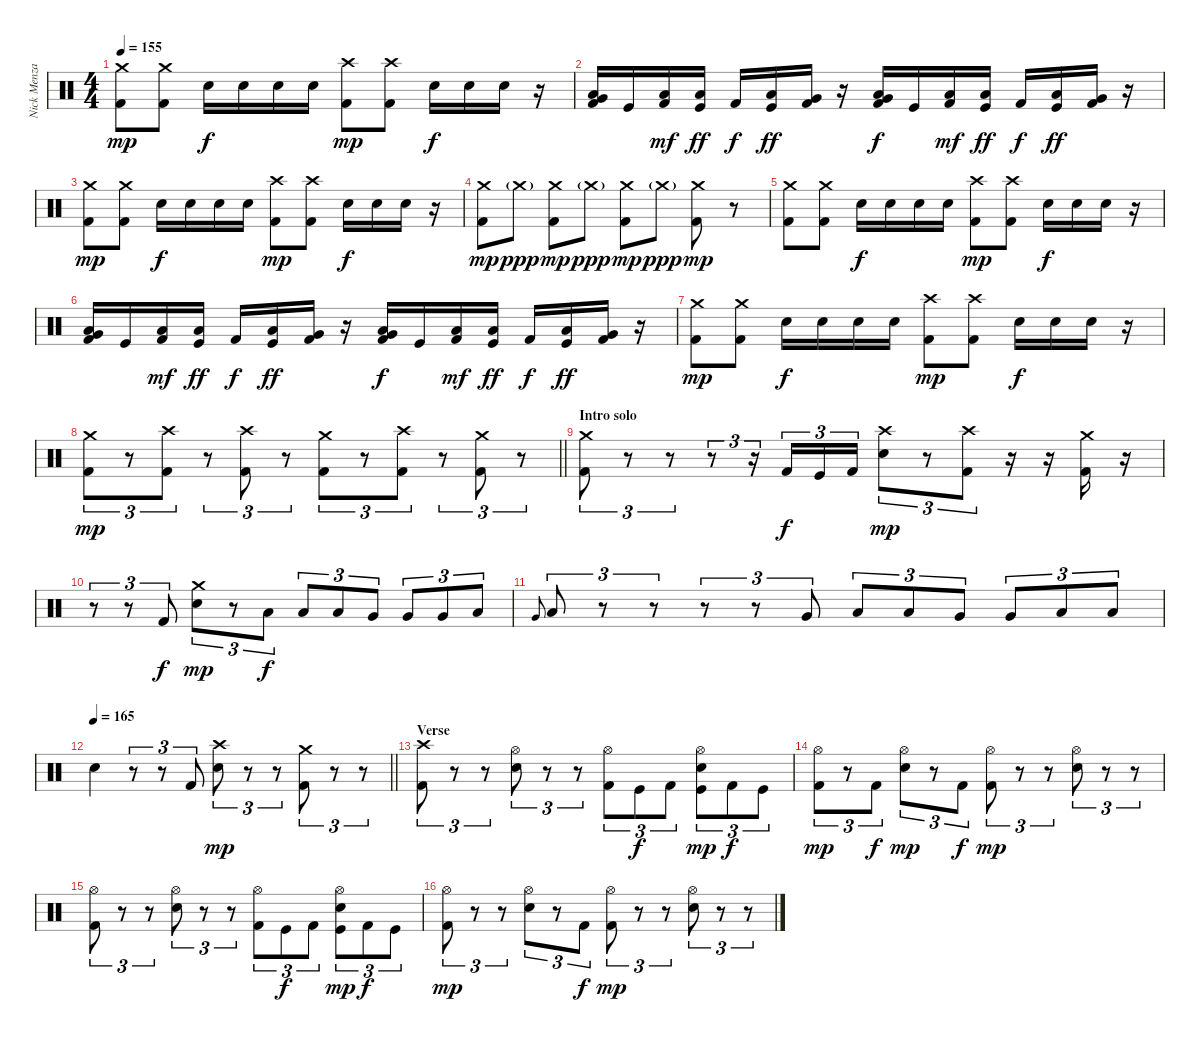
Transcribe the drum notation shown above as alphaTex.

\track ("Nick Menza" "Nick Menza") {solo instrument percussion}
\staff {score}
\articulation defaults
\ts (4 4)
\tempo 155
\clef neutral
\ks c
("Crash medium (hit)" "Kick (hit) 2").8{dy mp} ("Crash medium (hit)" "Kick (hit) 2").8 "Electric Snare (hit)".16{dy f} "Electric Snare (hit)".16 "Electric Snare (hit)".16 "Electric Snare (hit)".16 ("Crash high (hit)" "Kick (hit) 2").8{dy mp} ("Crash high (hit)" "Kick (hit) 2").8 "Electric Snare (hit)".16{dy f} "Electric Snare (hit)".16 "Electric Snare (hit)".16 r.16 |
("Low Tom (hit)" "Very Low Tom (hit)" "Kick (hit) 2").16 "Kick (hit)".16 ("Low Floor Tom (hit)" "Kick (hit) 2").16{dy mf} ("Low Tom (hit)" "Kick (hit)").16{dy ff} "Kick (hit) 2".16{dy f} ("Low Floor Tom (hit)" "Kick (hit)").16{dy ff} ("Very Low Tom (hit)" "Kick (hit) 2").16 r.16 ("Low Tom (hit)" "Very Low Tom (hit)" "Kick (hit) 2").16{dy f} "Kick (hit)".16 ("Low Floor Tom (hit)" "Kick (hit) 2").16{dy mf} ("Low Tom (hit)" "Kick (hit)").16{dy ff} "Kick (hit) 2".16{dy f} ("Low Floor Tom (hit)" "Kick (hit)").16{dy ff} ("Very Low Tom (hit)" "Kick (hit) 2").16 r.16 |
("Crash medium (hit)" "Kick (hit) 2").8{dy mp} ("Crash medium (hit)" "Kick (hit) 2").8 "Electric Snare (hit)".16{dy f} "Electric Snare (hit)".16 "Electric Snare (hit)".16 "Electric Snare (hit)".16 ("Crash high (hit)" "Kick (hit) 2").8{dy mp} ("Crash high (hit)" "Kick (hit) 2").8 "Electric Snare (hit)".16{dy f} "Electric Snare (hit)".16 "Electric Snare (hit)".16 r.16 |
("Crash medium (hit)" "Kick (hit) 2").8{dy mp} "Crash medium (hit)"{g}.8{dy ppp} ("Crash medium (hit)" "Kick (hit) 2").8{dy mp} "Crash medium (hit)"{g}.8{dy ppp} ("Crash medium (hit)" "Kick (hit) 2").8{dy mp} "Crash medium (hit)"{g}.8{dy ppp} ("Crash medium (hit)" "Kick (hit) 2").8{dy mp} r.8 |
("Crash medium (hit)" "Kick (hit) 2").8 ("Crash medium (hit)" "Kick (hit) 2").8 "Electric Snare (hit)".16{dy f} "Electric Snare (hit)".16 "Electric Snare (hit)".16 "Electric Snare (hit)".16 ("Crash high (hit)" "Kick (hit) 2").8{dy mp} ("Crash high (hit)" "Kick (hit) 2").8 "Electric Snare (hit)".16{dy f} "Electric Snare (hit)".16 "Electric Snare (hit)".16 r.16 |
("Low Tom (hit)" "Very Low Tom (hit)" "Kick (hit) 2").16 "Kick (hit)".16 ("Low Floor Tom (hit)" "Kick (hit) 2").16{dy mf} ("Low Tom (hit)" "Kick (hit)").16{dy ff} "Kick (hit) 2".16{dy f} ("Low Floor Tom (hit)" "Kick (hit)").16{dy ff} ("Very Low Tom (hit)" "Kick (hit) 2").16 r.16 ("Low Tom (hit)" "Very Low Tom (hit)" "Kick (hit) 2").16{dy f} "Kick (hit)".16 ("Low Floor Tom (hit)" "Kick (hit) 2").16{dy mf} ("Low Tom (hit)" "Kick (hit)").16{dy ff} "Kick (hit) 2".16{dy f} ("Low Floor Tom (hit)" "Kick (hit)").16{dy ff} ("Very Low Tom (hit)" "Kick (hit) 2").16 r.16 |
("Crash medium (hit)" "Kick (hit) 2").8{dy mp} ("Crash medium (hit)" "Kick (hit) 2").8 "Electric Snare (hit)".16{dy f} "Electric Snare (hit)".16 "Electric Snare (hit)".16 "Electric Snare (hit)".16 ("Crash high (hit)" "Kick (hit) 2").8{dy mp} ("Crash high (hit)" "Kick (hit) 2").8 "Electric Snare (hit)".16{dy f} "Electric Snare (hit)".16 "Electric Snare (hit)".16 r.16 |
\barLineRight lightlight
("Crash medium (hit)" "Kick (hit) 2").8{tu (3 2) dy mp} r.8{tu (3 2)} ("Crash high (hit)" "Kick (hit) 2").8{tu (3 2)} r.8{tu (3 2)} ("Crash high (hit)" "Kick (hit) 2").8{tu (3 2)} r.8{tu (3 2)} ("Crash medium (hit)" "Kick (hit) 2").8{tu (3 2)} r.8{tu (3 2)} ("Crash high (hit)" "Kick (hit) 2").8{tu (3 2)} r.8{tu (3 2)} ("Crash medium (hit)" "Kick (hit) 2").8{tu (3 2)} r.8{tu (3 2)} |
\section ("" "Intro solo")
("Crash medium (hit)" "Kick (hit) 2").8{tu (3 2)} r.8{tu (3 2)} r.8{tu (3 2)} r.8{tu (3 2)} r.16{tu (3 2)} "Kick (hit) 2".16{tu (3 2) dy f} "Kick (hit)".16{tu (3 2)} "Kick (hit) 2".16{tu (3 2)} ("Crash high (hit)" "Electric Snare (hit)").8{tu (3 2) dy mp} r.8{tu (3 2)} ("Crash high (hit)" "Kick (hit) 2").8{tu (3 2)} r.16 r.16 ("Crash medium (hit)" "Kick (hit) 2").16 r.16 |
r.8{tu (3 2)} r.8{tu (3 2)} "Kick (hit) 2".8{tu (3 2) dy f} ("Crash medium (hit)" "Electric Snare (hit)").8{tu (3 2) dy mp} r.8{tu (3 2)} "Low Tom (hit)".8{tu (3 2) dy f} "Low Tom (hit)".8{tu (3 2)} "Low Tom (hit)".8{tu (3 2)} "Very Low Tom (hit)".8{tu (3 2)} "Very Low Tom (hit)".8{tu (3 2)} "Very Low Tom (hit)".8{tu (3 2)} "Low Floor Tom (hit)".8{tu (3 2)} |
"Very Low Tom (hit)".8{gr onbeat} "Low Floor Tom (hit)".8{tu (3 2)} r.8{tu (3 2)} r.8{tu (3 2)} r.8{tu (3 2)} r.8{tu (3 2)} "Very Low Tom (hit)".8{tu (3 2)} "Low Tom (hit)".8{tu (3 2)} "Low Tom (hit)".8{tu (3 2)} "Very Low Tom (hit)".8{tu (3 2)} "Very Low Tom (hit)".8{tu (3 2)} "Low Floor Tom (hit)".8{tu (3 2)} "Low Floor Tom (hit)".8{tu (3 2)} |
\tempo 165
\barLineRight lightlight "Electric Snare (hit)".4
r.8{tu (3 2)} r.8{tu (3 2)} "Kick (hit) 2".8{tu (3 2)} ("Crash high (hit)" "Electric Snare (hit)").8{tu (3 2) dy mp} r.8{tu (3 2)} r.8{tu (3 2)} ("Crash medium (hit)" "Kick (hit) 2").8{tu (3 2)} r.8{tu (3 2)} r.8{tu (3 2)} |
\section ("" "Verse")
("Crash high (hit)" "Kick (hit) 2").8{tu (3 2)} r.8{tu (3 2)} r.8{tu (3 2)} ("Hi-Hat (open)" "Electric Snare (hit)").8{tu (3 2)} r.8{tu (3 2)} r.8{tu (3 2)} ("Hi-Hat (open)" "Kick (hit) 2").8{tu (3 2)} "Kick (hit)".8{tu (3 2) dy f} "Kick (hit) 2".8{tu (3 2)} ("Hi-Hat (open)" "Electric Snare (hit)" "Kick (hit)").8{tu (3 2) dy mp} "Kick (hit) 2".8{tu (3 2) dy f} "Kick (hit)".8{tu (3 2)} |
("Hi-Hat (open)" "Kick (hit) 2").8{tu (3 2) dy mp} r.8{tu (3 2)} "Kick (hit) 2".8{tu (3 2) dy f} ("Hi-Hat (open)" "Electric Snare (hit)").8{tu (3 2) dy mp} r.8{tu (3 2)} "Kick (hit) 2".8{tu (3 2) dy f} ("Hi-Hat (open)" "Kick (hit) 2").8{tu (3 2) dy mp} r.8{tu (3 2)} r.8{tu (3 2)} ("Hi-Hat (open)" "Electric Snare (hit)").8{tu (3 2)} r.8{tu (3 2)} r.8{tu (3 2)} |
("Hi-Hat (open)" "Kick (hit) 2").8{tu (3 2)} r.8{tu (3 2)} r.8{tu (3 2)} ("Hi-Hat (open)" "Electric Snare (hit)").8{tu (3 2)} r.8{tu (3 2)} r.8{tu (3 2)} ("Hi-Hat (open)" "Kick (hit) 2").8{tu (3 2)} "Kick (hit)".8{tu (3 2) dy f} "Kick (hit) 2".8{tu (3 2)} ("Hi-Hat (open)" "Electric Snare (hit)" "Kick (hit)").8{tu (3 2) dy mp} "Kick (hit) 2".8{tu (3 2) dy f} "Kick (hit)".8{tu (3 2)} |
("Hi-Hat (open)" "Kick (hit) 2").8{tu (3 2) dy mp} r.8{tu (3 2)} r.8{tu (3 2)} ("Hi-Hat (open)" "Electric Snare (hit)").8{tu (3 2)} r.8{tu (3 2)} "Kick (hit) 2".8{tu (3 2) dy f} ("Hi-Hat (open)" "Kick (hit) 2").8{tu (3 2) dy mp} r.8{tu (3 2)} r.8{tu (3 2)} ("Hi-Hat (open)" "Electric Snare (hit)").8{tu (3 2)} r.8{tu (3 2)} r.8{tu (3 2)}
